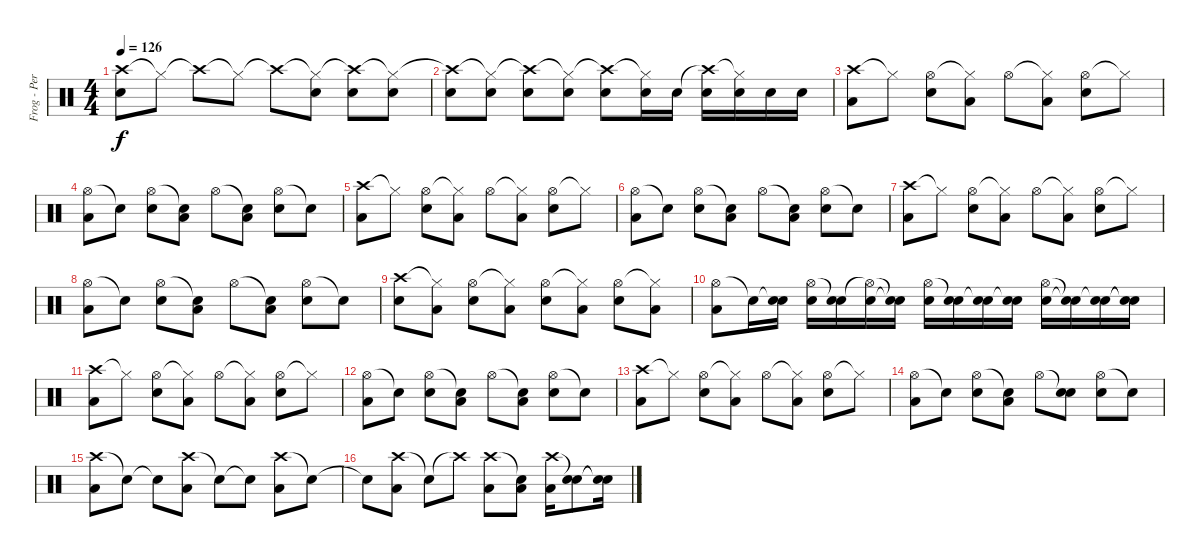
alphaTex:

\track ("Frog - Percussions" "Frog - Per") {instrument percussion}
\staff {score}
\articulation defaults
\ts (4 4)
\tempo 126
\clef neutral
\ks c
("Crash high (hit)" "Snare (hit) 2").8{dy f} "Hi-Hat (closed)"{t}.8 "Crash high (hit)"{t}.8 "Hi-Hat (closed)"{t}.8 "Crash high (hit)"{t}.8 ("Hi-Hat (closed)"{t} "Snare (hit) 2").8 ("Crash high (hit)"{t} "Snare (hit) 2").8 ("Hi-Hat (closed)"{t} "Snare (hit) 2").8 |
("Crash high (hit)"{t} "Snare (hit) 2").8 ("Hi-Hat (closed)"{t} "Snare (hit) 2").8 ("Crash high (hit)"{t} "Snare (hit) 2").8 ("Hi-Hat (closed)"{t} "Snare (hit) 2").8 ("Crash high (hit)"{t} "Snare (hit) 2").8 ("Hi-Hat (closed)"{t} "Snare (hit) 2").16 "Snare (hit) 2".16 ("Crash high (hit)"{t} "Snare (hit) 2").16 ("Hi-Hat (closed)"{t} "Snare (hit) 2").16 "Snare (hit) 2".16 "Snare (hit) 2".16 |
("Crash high (hit)" "Low Floor Tom (hit)").8 "Hi-Hat (closed)"{t}.8 ("Hi-Hat (open)" "Snare (hit) 2").8 ("Hi-Hat (closed)"{t} "Low Floor Tom (hit)").8 "Hi-Hat (open)".8 ("Hi-Hat (closed)"{t} "Low Floor Tom (hit)").8 ("Hi-Hat (open)" "Snare (hit) 2").8 "Hi-Hat (closed)"{t}.8 |
("Hi-Hat (open)" "Low Floor Tom (hit)").8 "Snare (hit)"{t}.8 ("Hi-Hat (open)" "Snare (hit) 2").8 ("Snare (hit)"{t} "Low Floor Tom (hit)").8 "Hi-Hat (open)".8 ("Snare (hit)"{t} "Low Floor Tom (hit)").8 ("Hi-Hat (open)" "Snare (hit) 2").8 "Snare (hit)"{t}.8 |
("Crash high (hit)" "Low Floor Tom (hit)").8 "Hi-Hat (closed)"{t}.8 ("Hi-Hat (open)" "Snare (hit) 2").8 ("Hi-Hat (closed)"{t} "Low Floor Tom (hit)").8 "Hi-Hat (open)".8 ("Hi-Hat (closed)"{t} "Low Floor Tom (hit)").8 ("Hi-Hat (open)" "Snare (hit) 2").8 "Hi-Hat (closed)"{t}.8 |
("Hi-Hat (open)" "Low Floor Tom (hit)").8 "Snare (hit)"{t}.8 ("Hi-Hat (open)" "Snare (hit) 2").8 ("Snare (hit)"{t} "Low Floor Tom (hit)").8 "Hi-Hat (open)".8 ("Snare (hit)"{t} "Low Floor Tom (hit)").8 ("Hi-Hat (open)" "Snare (hit) 2").8 "Snare (hit)"{t}.8 |
("Crash high (hit)" "Low Floor Tom (hit)").8 "Hi-Hat (closed)"{t}.8 ("Hi-Hat (open)" "Snare (hit) 2").8 ("Hi-Hat (closed)"{t} "Low Floor Tom (hit)").8 "Hi-Hat (open)".8 ("Hi-Hat (closed)"{t} "Low Floor Tom (hit)").8 ("Hi-Hat (open)" "Snare (hit) 2").8 "Hi-Hat (closed)"{t}.8 |
("Hi-Hat (open)" "Low Floor Tom (hit)").8 "Snare (hit)"{t}.8 ("Hi-Hat (open)" "Snare (hit) 2").8 ("Snare (hit)"{t} "Low Floor Tom (hit)").8 "Hi-Hat (open)".8 ("Snare (hit)"{t} "Low Floor Tom (hit)").8 ("Hi-Hat (open)" "Snare (hit) 2").8 "Snare (hit)"{t}.8 |
("Crash high (hit)" "Snare (hit) 2").8 ("Hi-Hat (closed)"{t} "Low Floor Tom (hit)").8 ("Hi-Hat (open)" "Snare (hit) 2").8 ("Hi-Hat (closed)"{t} "Low Floor Tom (hit)").8 ("Hi-Hat (open)" "Snare (hit) 2").8 ("Hi-Hat (closed)"{t} "Low Floor Tom (hit)").8 ("Hi-Hat (open)" "Snare (hit) 2").8 ("Hi-Hat (closed)"{t} "Low Floor Tom (hit)").8 |
("Hi-Hat (open)" "Low Floor Tom (hit)").8 "Snare (hit)"{t}.16 ("Snare (hit)"{t} "Snare (hit) 2").16 ("Hi-Hat (open)" "Snare (hit) 2").16 ("Snare (hit)"{t} "Snare (hit) 2").16 ("Hi-Hat (open)"{t} "Snare (hit) 2").16 ("Snare (hit)"{t} "Snare (hit) 2"{t}).16 ("Hi-Hat (open)" "Snare (hit) 2").16 ("Snare (hit)"{t} "Snare (hit) 2").16 ("Snare (hit)"{t} "Snare (hit) 2").16 ("Snare (hit)"{t} "Snare (hit) 2").16 ("Hi-Hat (open)" "Snare (hit) 2").16 ("Snare (hit)"{t} "Snare (hit)"{t}).16 ("Snare (hit)"{t} "Snare (hit) 2").16 ("Snare (hit)"{t} "Snare (hit)"{t}).16 |
("Crash high (hit)" "Low Floor Tom (hit)").8 "Hi-Hat (closed)"{t}.8 ("Hi-Hat (open)" "Snare (hit) 2").8 ("Hi-Hat (closed)"{t} "Low Floor Tom (hit)").8 "Hi-Hat (open)".8 ("Hi-Hat (closed)"{t} "Low Floor Tom (hit)").8 ("Hi-Hat (open)" "Snare (hit) 2").8 "Hi-Hat (closed)"{t}.8 |
("Hi-Hat (open)" "Low Floor Tom (hit)").8 "Snare (hit)"{t}.8 ("Hi-Hat (open)" "Snare (hit) 2").8 ("Snare (hit)"{t} "Low Floor Tom (hit)").8 "Hi-Hat (open)".8 ("Snare (hit)"{t} "Low Floor Tom (hit)").8 ("Hi-Hat (open)" "Snare (hit) 2").8 "Snare (hit)"{t}.8 |
("Crash high (hit)" "Low Floor Tom (hit)").8 "Hi-Hat (closed)"{t}.8 ("Hi-Hat (open)" "Snare (hit) 2").8 ("Hi-Hat (closed)"{t} "Low Floor Tom (hit)").8 "Hi-Hat (open)".8 ("Hi-Hat (closed)"{t} "Low Floor Tom (hit)").8 ("Hi-Hat (open)" "Snare (hit) 2").8 "Hi-Hat (closed)"{t}.8 |
("Hi-Hat (open)" "Low Floor Tom (hit)").8 "Snare (hit)"{t}.8 ("Hi-Hat (open)" "Snare (hit) 2").8 ("Snare (hit)"{t} "Low Floor Tom (hit)").8 "Hi-Hat (open)".8 ("Snare (hit)"{t} "Snare (hit) 2").8 ("Hi-Hat (open)" "Snare (hit) 2").8 "Snare (hit)"{t}.8 |
("Crash high (hit)" "Low Floor Tom (hit)").8 "Snare (hit)"{t}.8 "Snare (hit)"{t}.8 ("Crash high (hit)" "Low Floor Tom (hit)").8 "Snare (hit)"{t}.8 "Snare (hit)"{t}.8 ("Crash high (hit)" "Low Floor Tom (hit)").8 "Snare (hit)"{t}.8 |
"Snare (hit)"{t}.8 ("Crash high (hit)" "Low Floor Tom (hit)").8 "Snare (hit)"{t}.8 "Crash high (hit)"{t}.8 ("Crash high (hit)" "Low Floor Tom (hit)").8 ("Snare (hit)"{t} "Low Floor Tom (hit)").8 ("Crash high (hit)" "Low Floor Tom (hit)").16 ("Snare (hit)"{t} "Snare (hit) 2").8 ("Snare (hit)"{t} "Snare (hit)"{t}).16
